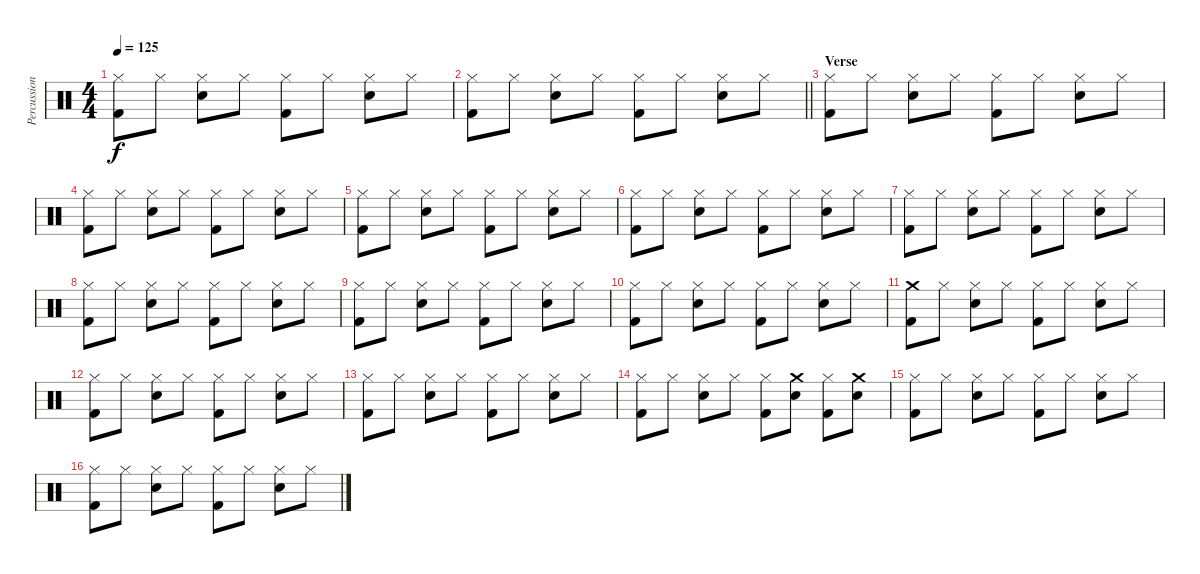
\track ("Percussion" "Percussion") {instrument percussion}
\staff {score}
\articulation defaults
\ts (4 4)
\tempo 125
\clef neutral
\ks c
("Hi-Hat (closed)" "Kick (hit) 2").8{dy f} "Hi-Hat (closed)".8 ("Hi-Hat (closed)" "Snare (hit) 2").8 "Hi-Hat (closed)".8 ("Hi-Hat (closed)" "Kick (hit) 2").8 "Hi-Hat (closed)".8 ("Hi-Hat (closed)" "Snare (hit) 2").8 "Hi-Hat (closed)".8 |
\barLineRight lightlight
("Hi-Hat (closed)" "Kick (hit) 2").8 "Hi-Hat (closed)".8 ("Hi-Hat (closed)" "Snare (hit) 2").8 "Hi-Hat (closed)".8 ("Hi-Hat (closed)" "Kick (hit) 2").8 "Hi-Hat (closed)".8 ("Hi-Hat (closed)" "Snare (hit) 2").8 "Hi-Hat (closed)".8 |
\section ("" "Verse")
("Hi-Hat (closed)" "Kick (hit) 2").8 "Hi-Hat (closed)".8 ("Hi-Hat (closed)" "Snare (hit) 2").8 "Hi-Hat (closed)".8 ("Hi-Hat (closed)" "Kick (hit) 2").8 "Hi-Hat (closed)".8 ("Hi-Hat (closed)" "Snare (hit) 2").8 "Hi-Hat (closed)".8 |
("Hi-Hat (closed)" "Kick (hit) 2").8 "Hi-Hat (closed)".8 ("Hi-Hat (closed)" "Snare (hit) 2").8 "Hi-Hat (closed)".8 ("Hi-Hat (closed)" "Kick (hit) 2").8 "Hi-Hat (closed)".8 ("Hi-Hat (closed)" "Snare (hit) 2").8 "Hi-Hat (closed)".8 |
("Hi-Hat (closed)" "Kick (hit) 2").8 "Hi-Hat (closed)".8 ("Hi-Hat (closed)" "Snare (hit) 2").8 "Hi-Hat (closed)".8 ("Hi-Hat (closed)" "Kick (hit) 2").8 "Hi-Hat (closed)".8 ("Hi-Hat (closed)" "Snare (hit) 2").8 "Hi-Hat (closed)".8 |
("Hi-Hat (closed)" "Kick (hit) 2").8 "Hi-Hat (closed)".8 ("Hi-Hat (closed)" "Snare (hit) 2").8 "Hi-Hat (closed)".8 ("Hi-Hat (closed)" "Kick (hit) 2").8 "Hi-Hat (closed)".8 ("Hi-Hat (closed)" "Snare (hit) 2").8 "Hi-Hat (closed)".8 |
("Hi-Hat (closed)" "Kick (hit) 2").8 "Hi-Hat (closed)".8 ("Hi-Hat (closed)" "Snare (hit) 2").8 "Hi-Hat (closed)".8 ("Hi-Hat (closed)" "Kick (hit) 2").8 "Hi-Hat (closed)".8 ("Hi-Hat (closed)" "Snare (hit) 2").8 "Hi-Hat (closed)".8 |
("Hi-Hat (closed)" "Kick (hit) 2").8 "Hi-Hat (closed)".8 ("Hi-Hat (closed)" "Snare (hit) 2").8 "Hi-Hat (closed)".8 ("Hi-Hat (closed)" "Kick (hit) 2").8 "Hi-Hat (closed)".8 ("Hi-Hat (closed)" "Snare (hit) 2").8 "Hi-Hat (closed)".8 |
("Hi-Hat (closed)" "Kick (hit) 2").8 "Hi-Hat (closed)".8 ("Hi-Hat (closed)" "Snare (hit) 2").8 "Hi-Hat (closed)".8 ("Hi-Hat (closed)" "Kick (hit) 2").8 "Hi-Hat (closed)".8 ("Hi-Hat (closed)" "Snare (hit) 2").8 "Hi-Hat (closed)".8 |
("Hi-Hat (closed)" "Kick (hit) 2").8 "Hi-Hat (closed)".8 ("Hi-Hat (closed)" "Snare (hit) 2").8 "Hi-Hat (closed)".8 ("Hi-Hat (closed)" "Kick (hit) 2").8 "Hi-Hat (closed)".8 ("Hi-Hat (closed)" "Snare (hit) 2").8 "Hi-Hat (closed)".8 |
("Crash medium (hit)" "Kick (hit) 2").8 "Hi-Hat (closed)".8 ("Hi-Hat (closed)" "Snare (hit) 2").8 "Hi-Hat (closed)".8 ("Hi-Hat (closed)" "Kick (hit) 2").8 "Hi-Hat (closed)".8 ("Hi-Hat (closed)" "Snare (hit) 2").8 "Hi-Hat (closed)".8 |
("Hi-Hat (closed)" "Kick (hit) 2").8 "Hi-Hat (closed)".8 ("Hi-Hat (closed)" "Snare (hit) 2").8 "Hi-Hat (closed)".8 ("Hi-Hat (closed)" "Kick (hit) 2").8 "Hi-Hat (closed)".8 ("Hi-Hat (closed)" "Snare (hit) 2").8 "Hi-Hat (closed)".8 |
("Hi-Hat (closed)" "Kick (hit) 2").8 "Hi-Hat (closed)".8 ("Hi-Hat (closed)" "Snare (hit) 2").8 "Hi-Hat (closed)".8 ("Hi-Hat (closed)" "Kick (hit) 2").8 "Hi-Hat (closed)".8 ("Hi-Hat (closed)" "Snare (hit) 2").8 "Hi-Hat (closed)".8 |
("Hi-Hat (closed)" "Kick (hit) 2").8 "Hi-Hat (closed)".8 ("Hi-Hat (closed)" "Snare (hit) 2").8 "Hi-Hat (closed)".8 ("Hi-Hat (closed)" "Kick (hit) 2").8 ("Crash medium (hit)" "Snare (hit) 2").8 ("Hi-Hat (closed)" "Kick (hit) 2").8 ("Crash medium (hit)" "Snare (hit) 2").8 |
("Hi-Hat (closed)" "Kick (hit) 2").8 "Hi-Hat (closed)".8 ("Hi-Hat (closed)" "Snare (hit) 2").8 "Hi-Hat (closed)".8 ("Hi-Hat (closed)" "Kick (hit) 2").8 "Hi-Hat (closed)".8 ("Hi-Hat (closed)" "Snare (hit) 2").8 "Hi-Hat (closed)".8 |
("Hi-Hat (closed)" "Kick (hit) 2").8 "Hi-Hat (closed)".8 ("Hi-Hat (closed)" "Snare (hit) 2").8 "Hi-Hat (closed)".8 ("Hi-Hat (closed)" "Kick (hit) 2").8 "Hi-Hat (closed)".8 ("Hi-Hat (closed)" "Snare (hit) 2").8 "Hi-Hat (closed)".8
